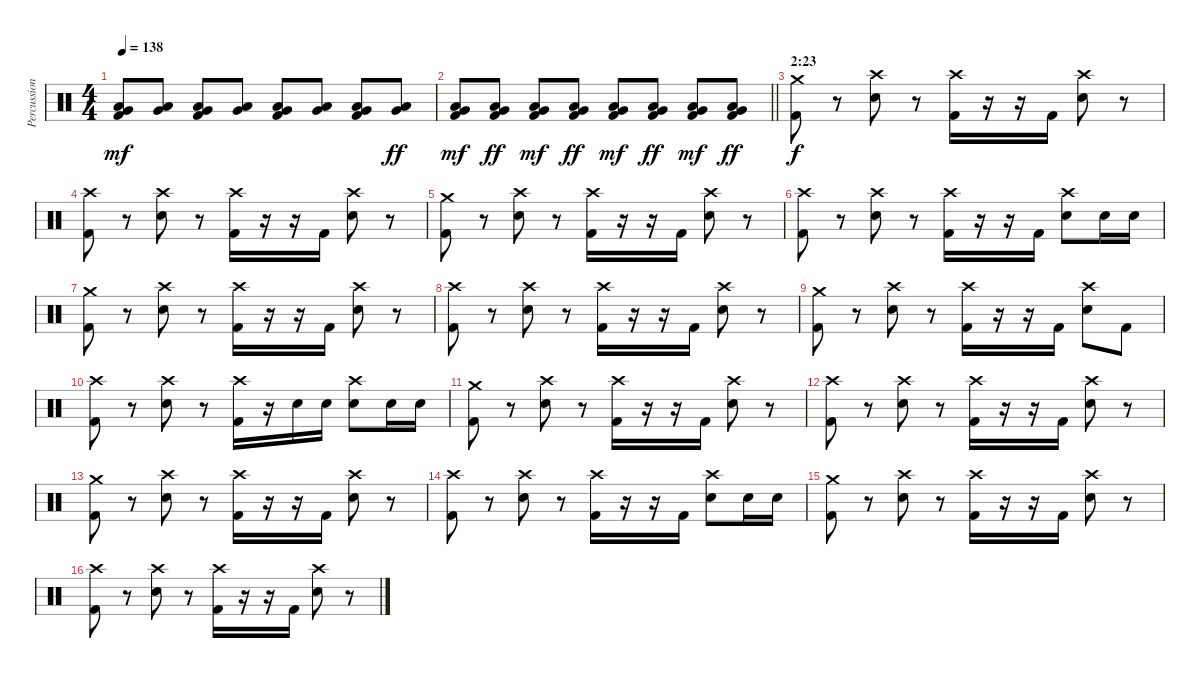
\track ("Percussion" "Percussion") {instrument percussion}
\staff {score}
\articulation defaults
\ts (4 4)
\tempo 138
\clef neutral
\ks c
("Very Low Tom (hit)" "Low Floor Tom (hit)" "Kick (hit) 2").8{dy mf} ("Very Low Tom (hit)" "Low Floor Tom (hit)").8 ("Very Low Tom (hit)" "Low Floor Tom (hit)" "Kick (hit) 2").8 ("Very Low Tom (hit)" "Low Floor Tom (hit)").8 ("Very Low Tom (hit)" "Low Floor Tom (hit)" "Kick (hit) 2").8 ("Very Low Tom (hit)" "Low Floor Tom (hit)").8 ("Very Low Tom (hit)" "Low Floor Tom (hit)" "Kick (hit) 2").8 ("Very Low Tom (hit)" "Low Floor Tom (hit)").8{dy ff} |
\barLineRight lightlight
("Very Low Tom (hit)" "Low Floor Tom (hit)" "Kick (hit) 2").8{dy mf volume 13} ("Very Low Tom (hit)" "Low Floor Tom (hit)" "Kick (hit) 2").8{dy ff} ("Very Low Tom (hit)" "Low Floor Tom (hit)" "Kick (hit) 2").8{dy mf} ("Very Low Tom (hit)" "Low Floor Tom (hit)" "Kick (hit) 2").8{dy ff} ("Very Low Tom (hit)" "Low Floor Tom (hit)" "Kick (hit) 2").8{dy mf} ("Very Low Tom (hit)" "Low Floor Tom (hit)" "Kick (hit) 2").8{dy ff} ("Very Low Tom (hit)" "Low Floor Tom (hit)" "Kick (hit) 2").8{dy mf} ("Very Low Tom (hit)" "Low Floor Tom (hit)" "Kick (hit) 2").8{dy ff} |
\section ("" "2:23")
("Crash medium (hit)" "Kick (hit) 2").8{dy f} r.8 ("Crash high (hit)" "Electric Snare (hit)").8 r.8 ("Crash high (hit)" "Kick (hit) 2").16 r.16 r.16 "Kick (hit) 2".16 ("Crash high (hit)" "Electric Snare (hit)").8 r.8 |
("Crash high (hit)" "Kick (hit) 2").8 r.8 ("Crash high (hit)" "Electric Snare (hit)").8 r.8 ("Crash high (hit)" "Kick (hit) 2").16 r.16 r.16 "Kick (hit) 2".16 ("Crash high (hit)" "Electric Snare (hit)").8 r.8 |
("Crash medium (hit)" "Kick (hit) 2").8 r.8 ("Crash high (hit)" "Electric Snare (hit)").8 r.8 ("Crash high (hit)" "Kick (hit) 2").16 r.16 r.16 "Kick (hit) 2".16 ("Crash high (hit)" "Electric Snare (hit)").8 r.8 |
("Crash high (hit)" "Kick (hit) 2").8 r.8 ("Crash high (hit)" "Electric Snare (hit)").8 r.8 ("Crash high (hit)" "Kick (hit) 2").16 r.16 r.16 "Kick (hit) 2".16 ("Crash high (hit)" "Electric Snare (hit)").8 "Electric Snare (hit)".16 "Electric Snare (hit)".16 |
("Crash medium (hit)" "Kick (hit) 2").8 r.8 ("Crash high (hit)" "Electric Snare (hit)").8 r.8 ("Crash high (hit)" "Kick (hit) 2").16 r.16 r.16 "Kick (hit) 2".16 ("Crash high (hit)" "Electric Snare (hit)").8 r.8 |
("Crash high (hit)" "Kick (hit) 2").8 r.8 ("Crash high (hit)" "Electric Snare (hit)").8 r.8 ("Crash high (hit)" "Kick (hit) 2").16 r.16 r.16 "Kick (hit) 2".16 ("Crash high (hit)" "Electric Snare (hit)").8 r.8 |
("Crash medium (hit)" "Kick (hit) 2").8 r.8 ("Crash high (hit)" "Electric Snare (hit)").8 r.8 ("Crash high (hit)" "Kick (hit) 2").16 r.16 r.16 "Kick (hit) 2".16 ("Crash high (hit)" "Electric Snare (hit)").8 "Kick (hit) 2".8 |
("Crash high (hit)" "Kick (hit) 2").8 r.8 ("Crash high (hit)" "Electric Snare (hit)").8 r.8 ("Crash high (hit)" "Kick (hit) 2").16 r.16 "Electric Snare (hit)".16 "Electric Snare (hit)".16 ("Crash high (hit)" "Electric Snare (hit)").8 "Electric Snare (hit)".16 "Electric Snare (hit)".16 |
("Crash medium (hit)" "Kick (hit) 2").8 r.8 ("Crash high (hit)" "Electric Snare (hit)").8 r.8 ("Crash high (hit)" "Kick (hit) 2").16 r.16 r.16 "Kick (hit) 2".16 ("Crash high (hit)" "Electric Snare (hit)").8 r.8 |
("Crash high (hit)" "Kick (hit) 2").8 r.8 ("Crash high (hit)" "Electric Snare (hit)").8 r.8 ("Crash high (hit)" "Kick (hit) 2").16 r.16 r.16 "Kick (hit) 2".16 ("Crash high (hit)" "Electric Snare (hit)").8 r.8 |
("Crash medium (hit)" "Kick (hit) 2").8 r.8 ("Crash high (hit)" "Electric Snare (hit)").8 r.8 ("Crash high (hit)" "Kick (hit) 2").16 r.16 r.16 "Kick (hit) 2".16 ("Crash high (hit)" "Electric Snare (hit)").8 r.8 |
("Crash high (hit)" "Kick (hit) 2").8 r.8 ("Crash high (hit)" "Electric Snare (hit)").8 r.8 ("Crash high (hit)" "Kick (hit) 2").16 r.16 r.16 "Kick (hit) 2".16 ("Crash high (hit)" "Electric Snare (hit)").8 "Electric Snare (hit)".16 "Electric Snare (hit)".16 |
("Crash medium (hit)" "Kick (hit) 2").8 r.8 ("Crash high (hit)" "Electric Snare (hit)").8 r.8 ("Crash high (hit)" "Kick (hit) 2").16 r.16 r.16 "Kick (hit) 2".16 ("Crash high (hit)" "Electric Snare (hit)").8 r.8 |
("Crash high (hit)" "Kick (hit) 2").8 r.8 ("Crash high (hit)" "Electric Snare (hit)").8 r.8 ("Crash high (hit)" "Kick (hit) 2").16 r.16 r.16 "Kick (hit) 2".16 ("Crash high (hit)" "Electric Snare (hit)").8 r.8
